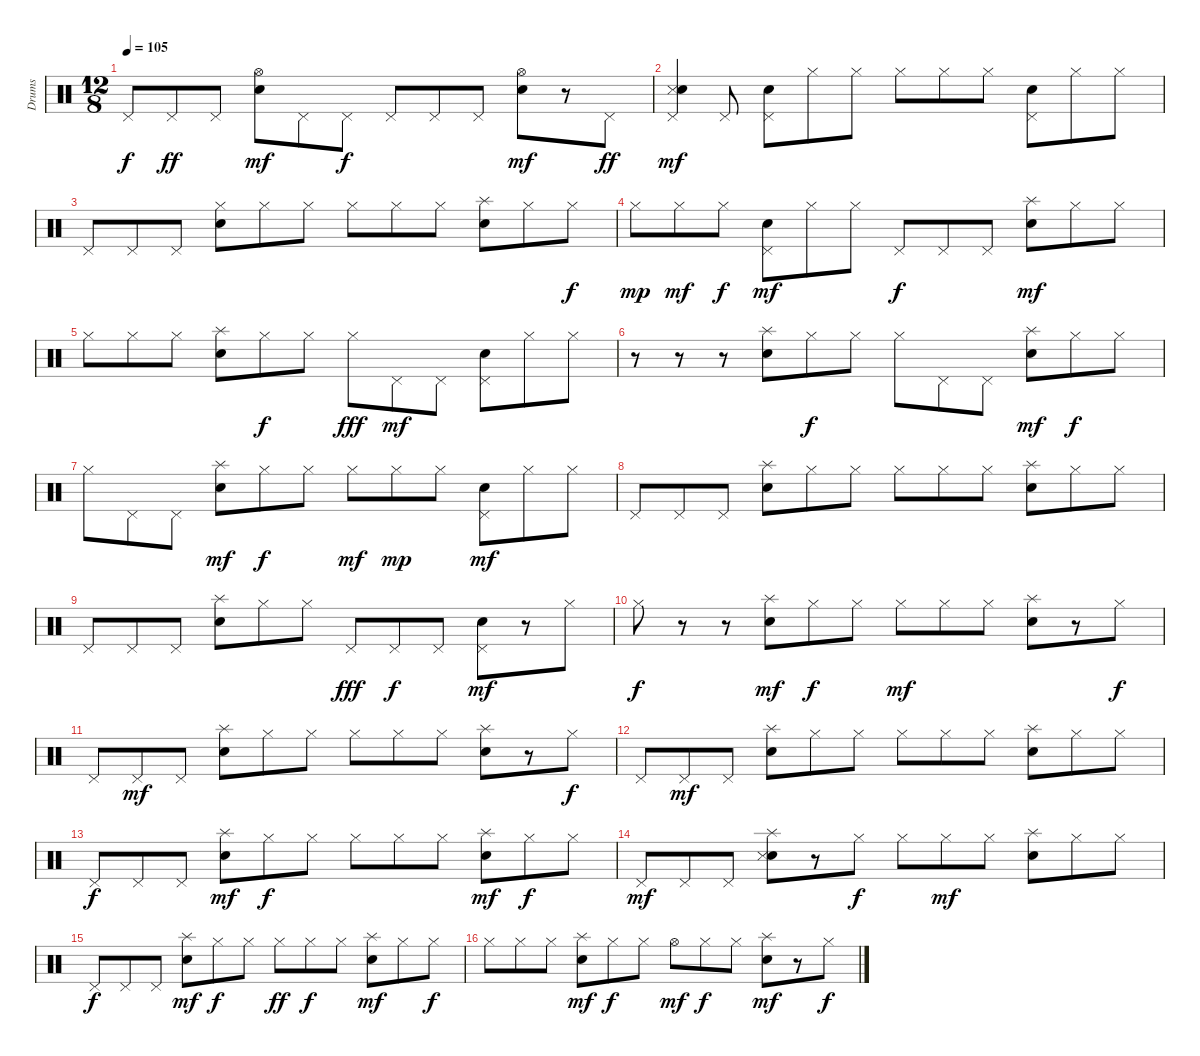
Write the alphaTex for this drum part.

\track ("Drums" "Drums") {instrument percussion}
\staff {score}
\articulation defaults
\ts (12 8)
\tempo 105
\clef neutral
\ks c "Pedal Hi-Hat (hit)".8{dy f} "Pedal Hi-Hat (hit)".8{dy ff} "Pedal Hi-Hat (hit)".8
("Hi-Hat (open)" "Snare (hit) 2").8{dy mf} "Pedal Hi-Hat (hit)".8 "Pedal Hi-Hat (hit)".8{dy f} "Pedal Hi-Hat (hit)".8 "Pedal Hi-Hat (hit)".8 "Pedal Hi-Hat (hit)".8 ("Hi-Hat (open)" "Snare (hit) 2").8{dy mf} r.8 "Pedal Hi-Hat (hit)".8{dy ff} |
("Pedal Hi-Hat (hit)" "Snare (side stick) 3" "Snare (hit) 2").4{dy mf} "Pedal Hi-Hat (hit)".8 ("Pedal Hi-Hat (hit)" "Snare (hit) 2").8 "Hi-Hat (closed)".8 "Hi-Hat (closed)".8 "Hi-Hat (closed)".8 "Hi-Hat (closed)".8 "Hi-Hat (closed)".8 ("Pedal Hi-Hat (hit)" "Snare (hit) 2").8 "Hi-Hat (closed)".8 "Hi-Hat (closed)".8 |
"Pedal Hi-Hat (hit)".8 "Pedal Hi-Hat (hit)".8 "Pedal Hi-Hat (hit)".8 ("Hi-Hat (closed)" "Snare (hit) 2").8 "Hi-Hat (closed)".8 "Hi-Hat (closed)".8 "Hi-Hat (closed)".8 "Hi-Hat (closed)".8 "Hi-Hat (closed)".8 ("Splash (hit)" "Snare (hit) 2").8 "Hi-Hat (closed)".8 "Hi-Hat (closed)".8{dy f} |
"Hi-Hat (closed)".8{dy mp} "Hi-Hat (closed)".8{dy mf} "Hi-Hat (closed)".8{dy f} ("Pedal Hi-Hat (hit)" "Snare (hit) 2").8{dy mf} "Hi-Hat (closed)".8 "Hi-Hat (closed)".8 "Pedal Hi-Hat (hit)".8{dy f} "Pedal Hi-Hat (hit)".8 "Pedal Hi-Hat (hit)".8 ("Splash (hit)" "Snare (hit) 2").8{dy mf} "Hi-Hat (closed)".8 "Hi-Hat (closed)".8 |
"Hi-Hat (closed)".8 "Hi-Hat (closed)".8 "Hi-Hat (closed)".8 ("Splash (hit)" "Snare (hit) 2").8 "Hi-Hat (closed)".8{dy f} "Hi-Hat (closed)".8 "Hi-Hat (closed)".8{dy fff} "Pedal Hi-Hat (hit)".8{dy mf} "Pedal Hi-Hat (hit)".8 ("Pedal Hi-Hat (hit)" "Snare (hit) 2").8 "Hi-Hat (closed)".8 "Hi-Hat (closed)".8 |
r.8 r.8 r.8 ("Splash (hit)" "Snare (hit) 2").8 "Hi-Hat (closed)".8{dy f} "Hi-Hat (closed)".8 "Hi-Hat (closed)".8 "Pedal Hi-Hat (hit)".8 "Pedal Hi-Hat (hit)".8 ("Splash (hit)" "Snare (hit) 2").8{dy mf} "Hi-Hat (closed)".8{dy f} "Hi-Hat (closed)".8 |
"Hi-Hat (closed)".8 "Pedal Hi-Hat (hit)".8 "Pedal Hi-Hat (hit)".8 ("Splash (hit)" "Snare (hit) 2").8{dy mf} "Hi-Hat (closed)".8{dy f} "Hi-Hat (closed)".8 "Hi-Hat (closed)".8{dy mf} "Hi-Hat (closed)".8{dy mp} "Hi-Hat (closed)".8 ("Pedal Hi-Hat (hit)" "Snare (hit) 2").8{dy mf} "Hi-Hat (closed)".8 "Hi-Hat (closed)".8 |
"Pedal Hi-Hat (hit)".8 "Pedal Hi-Hat (hit)".8 "Pedal Hi-Hat (hit)".8 ("Splash (hit)" "Snare (hit) 2").8 "Hi-Hat (closed)".8 "Hi-Hat (closed)".8 "Hi-Hat (closed)".8 "Hi-Hat (closed)".8 "Hi-Hat (closed)".8 ("Splash (hit)" "Snare (hit) 2").8 "Hi-Hat (closed)".8 "Hi-Hat (closed)".8 |
"Pedal Hi-Hat (hit)".8 "Pedal Hi-Hat (hit)".8 "Pedal Hi-Hat (hit)".8 ("Splash (hit)" "Snare (hit) 2").8 "Hi-Hat (closed)".8 "Hi-Hat (closed)".8 "Pedal Hi-Hat (hit)".8{dy fff} "Pedal Hi-Hat (hit)".8{dy f} "Pedal Hi-Hat (hit)".8 ("Pedal Hi-Hat (hit)" "Snare (hit) 2").8{dy mf} r.8 "Hi-Hat (closed)".8 |
"Hi-Hat (closed)".8{dy f} r.8 r.8 ("Splash (hit)" "Snare (hit) 2").8{dy mf} "Hi-Hat (closed)".8{dy f} "Hi-Hat (closed)".8 "Hi-Hat (closed)".8{dy mf} "Hi-Hat (closed)".8 "Hi-Hat (closed)".8 ("Splash (hit)" "Snare (hit) 2").8 r.8 "Hi-Hat (closed)".8{dy f} |
"Pedal Hi-Hat (hit)".8 "Pedal Hi-Hat (hit)".8{dy mf} "Pedal Hi-Hat (hit)".8 ("Splash (hit)" "Snare (hit) 2").8 "Hi-Hat (closed)".8 "Hi-Hat (closed)".8 "Hi-Hat (closed)".8 "Hi-Hat (closed)".8 "Hi-Hat (closed)".8 ("Splash (hit)" "Snare (hit) 2").8 r.8 "Hi-Hat (closed)".8{dy f} |
"Pedal Hi-Hat (hit)".8 "Pedal Hi-Hat (hit)".8{dy mf} "Pedal Hi-Hat (hit)".8 ("Splash (hit)" "Snare (hit) 2").8 "Hi-Hat (closed)".8 "Hi-Hat (closed)".8 "Hi-Hat (closed)".8 "Hi-Hat (closed)".8 "Hi-Hat (closed)".8 ("Splash (hit)" "Snare (hit) 2").8 "Hi-Hat (closed)".8 "Hi-Hat (closed)".8 |
"Pedal Hi-Hat (hit)".8{dy f} "Pedal Hi-Hat (hit)".8 "Pedal Hi-Hat (hit)".8 ("Splash (hit)" "Snare (hit) 2").8{dy mf} "Hi-Hat (closed)".8{dy f} "Hi-Hat (closed)".8 "Hi-Hat (closed)".8 "Hi-Hat (closed)".8 "Hi-Hat (closed)".8 ("Splash (hit)" "Snare (hit) 2").8{dy mf} "Hi-Hat (closed)".8{dy f} "Hi-Hat (closed)".8 |
"Pedal Hi-Hat (hit)".8{dy mf} "Pedal Hi-Hat (hit)".8 "Pedal Hi-Hat (hit)".8 ("Splash (hit)" "Snare (hit) 2" "Snare (side stick) 3").8 r.8 "Hi-Hat (closed)".8{dy f} "Hi-Hat (closed)".8 "Hi-Hat (closed)".8{dy mf} "Hi-Hat (closed)".8 ("Splash (hit)" "Snare (hit) 2").8 "Hi-Hat (closed)".8 "Hi-Hat (closed)".8 |
"Pedal Hi-Hat (hit)".8{dy f} "Pedal Hi-Hat (hit)".8 "Pedal Hi-Hat (hit)".8 ("Splash (hit)" "Snare (hit) 2").8{dy mf} "Hi-Hat (closed)".8{dy f} "Hi-Hat (closed)".8 "Hi-Hat (closed)".8{dy ff} "Hi-Hat (closed)".8{dy f} "Hi-Hat (closed)".8 ("Splash (hit)" "Snare (hit) 2").8{dy mf} "Hi-Hat (closed)".8 "Hi-Hat (closed)".8{dy f} |
"Hi-Hat (closed)".8 "Hi-Hat (closed)".8 "Hi-Hat (closed)".8 ("Splash (hit)" "Snare (hit) 2").8{dy mf} "Hi-Hat (closed)".8{dy f} "Hi-Hat (closed)".8 "Hi-Hat (open)".8{dy mf} "Hi-Hat (closed)".8{dy f} "Hi-Hat (closed)".8 ("Splash (hit)" "Snare (hit) 2").8{dy mf} r.8 "Hi-Hat (closed)".8{dy f}
